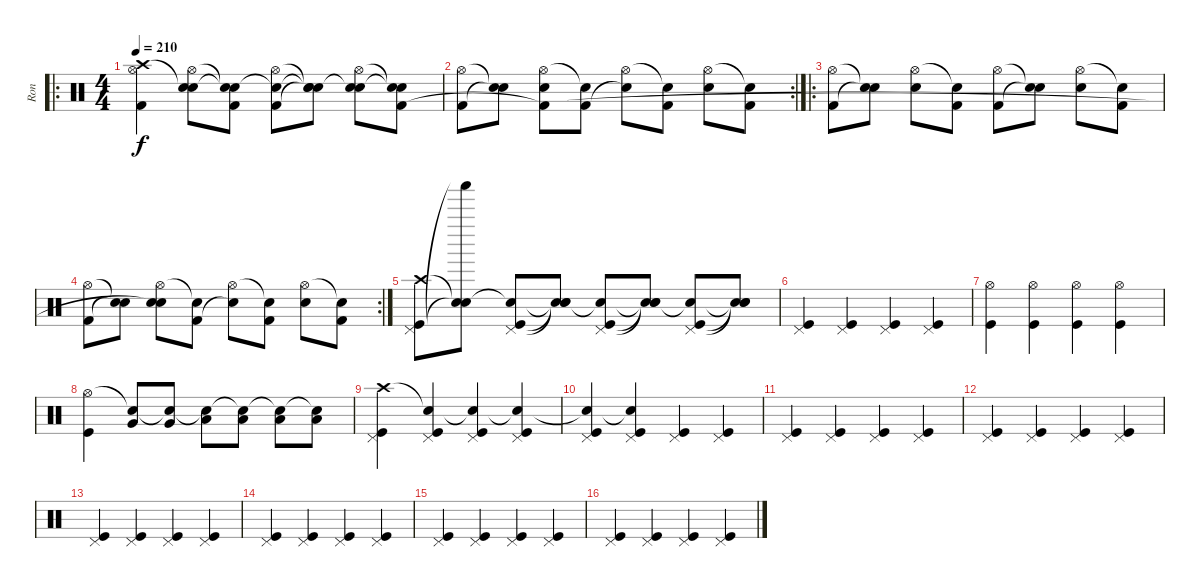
\track ("Ron" "Ron") {instrument percussion}
\staff {score}
\articulation defaults
\ro
\ts (4 4)
\tempo 210
\clef neutral
\ks c
("Crash high (hit)" "Hi-Hat (open)" "Kick (hit) 2").4{dy f} ("Snare (hit)"{t} "Hi-Hat (open)" "Electric Snare (hit)").8 ("Snare (hit)"{t} "Snare (hit)"{t} "Kick (hit) 2").8 ("Snare (hit)"{t} "Hi-Hat (open)" "Kick (hit) 2").8 ("Snare (hit)"{t} "Snare (hit)"{t} "Snare (hit)"{t}).8 ("Snare (hit)"{t} "Hi-Hat (open)" "Electric Snare (hit)").8 ("Snare (hit)"{t} "Snare (hit)"{t} "Kick (hit) 2").8 |
\rc 2
("Hi-Hat (open)" "Kick (hit) 2").8 ("Snare (hit)"{t} "Snare (hit)"{t}).8 ("Hi-Hat (open)" "Electric Snare (hit)" "Kick (hit) 2"{t}).8 ("Snare (hit)"{t} "Kick (hit) 2").8 ("Hi-Hat (open)" "Snare (hit)"{t}).8 ("Snare (hit)"{t} "Kick (hit) 2").8 ("Hi-Hat (open)" "Electric Snare (hit)").8 ("Snare (hit)"{t} "Kick (hit) 2").8 |
\ro
("Hi-Hat (open)" "Kick (hit) 2").8 ("Snare (hit)"{t} "Snare (hit)"{t}).8 ("Hi-Hat (open)" "Electric Snare (hit)").8 ("Snare (hit)"{t} "Kick (hit) 2").8 ("Hi-Hat (open)" "Kick (hit) 2").8 ("Snare (hit)"{t} "Snare (hit)"{t}).8 ("Hi-Hat (open)" "Electric Snare (hit)").8 ("Snare (hit)"{t} "Kick (hit) 2").8 |
\rc 2
("Hi-Hat (open)" "Kick (hit) 2").8 ("Snare (hit)"{t} "Snare (hit)"{t}).8 ("Hi-Hat (open)" "Electric Snare (hit)" "Snare (hit)"{t}).8 ("Snare (hit)"{t} "Kick (hit) 2").8 ("Hi-Hat (open)" "Snare (hit)"{t}).8 ("Snare (hit)"{t} "Kick (hit) 2").8 ("Hi-Hat (open)" "Electric Snare (hit)").8 ("Snare (hit)"{t} "Kick (hit) 2").8 |
("Crash high (hit)" "Pedal Hi-Hat (hit)" "Kick (hit)").8 ("Snare (hit)"{t} "Shaker (hit)"{t} "Snare (hit)"{t}).8 ("Snare (hit)"{t} "Pedal Hi-Hat (hit)" "Kick (hit)").8 ("Snare (hit)"{t} "Snare (hit)"{t} "Snare (hit)"{t}).8 ("Snare (hit)"{t} "Pedal Hi-Hat (hit)" "Kick (hit)").8 ("Snare (hit)"{t} "Snare (hit)"{t} "Snare (hit)"{t}).8 ("Snare (hit)"{t} "Pedal Hi-Hat (hit)" "Kick (hit)").8 ("Snare (hit)"{t} "Snare (hit)"{t} "Snare (hit)"{t}).8 |
("Pedal Hi-Hat (hit)" "Kick (hit)").4 ("Pedal Hi-Hat (hit)" "Kick (hit)").4 ("Pedal Hi-Hat (hit)" "Kick (hit)").4 ("Pedal Hi-Hat (hit)" "Kick (hit)").4 |
("Hi-Hat (open)" "Kick (hit)").4 ("Hi-Hat (open)" "Kick (hit)").4 ("Hi-Hat (open)" "Kick (hit)").4 ("Hi-Hat (open)" "Kick (hit)").4 |
("Hi-Hat (open)" "Kick (hit)").4 ("Snare (hit)"{t} "Very Low Tom (hit)").8 ("Snare (hit)"{t} "Very Low Tom (hit)").8 ("Snare (hit)"{t} "Low Floor Tom (hit)").8 ("Snare (hit)"{t} "Low Floor Tom (hit)").8 ("Snare (hit)"{t} "Low Floor Tom (hit)").8 ("Snare (hit)"{t} "Low Floor Tom (hit)").8 |
("Crash high (hit)" "Pedal Hi-Hat (hit)" "Kick (hit)").4 ("Snare (hit)"{t} "Pedal Hi-Hat (hit)" "Kick (hit)").4 ("Snare (hit)"{t} "Pedal Hi-Hat (hit)" "Kick (hit)").4 ("Snare (hit)"{t} "Pedal Hi-Hat (hit)" "Kick (hit)").4 |
("Snare (hit)"{t} "Pedal Hi-Hat (hit)" "Kick (hit)").4 ("Snare (hit)"{t} "Pedal Hi-Hat (hit)" "Kick (hit)").4 ("Pedal Hi-Hat (hit)" "Kick (hit)").4 ("Pedal Hi-Hat (hit)" "Kick (hit)").4 |
("Pedal Hi-Hat (hit)" "Kick (hit)").4 ("Pedal Hi-Hat (hit)" "Kick (hit)").4 ("Pedal Hi-Hat (hit)" "Kick (hit)").4 ("Pedal Hi-Hat (hit)" "Kick (hit)").4 |
("Pedal Hi-Hat (hit)" "Kick (hit)").4 ("Pedal Hi-Hat (hit)" "Kick (hit)").4 ("Pedal Hi-Hat (hit)" "Kick (hit)").4 ("Pedal Hi-Hat (hit)" "Kick (hit)").4 |
("Pedal Hi-Hat (hit)" "Kick (hit)").4 ("Pedal Hi-Hat (hit)" "Kick (hit)").4 ("Pedal Hi-Hat (hit)" "Kick (hit)").4 ("Pedal Hi-Hat (hit)" "Kick (hit)").4 |
("Pedal Hi-Hat (hit)" "Kick (hit)").4 ("Pedal Hi-Hat (hit)" "Kick (hit)").4 ("Pedal Hi-Hat (hit)" "Kick (hit)").4 ("Pedal Hi-Hat (hit)" "Kick (hit)").4 |
("Pedal Hi-Hat (hit)" "Kick (hit)").4 ("Pedal Hi-Hat (hit)" "Kick (hit)").4 ("Pedal Hi-Hat (hit)" "Kick (hit)").4 ("Pedal Hi-Hat (hit)" "Kick (hit)").4 |
("Pedal Hi-Hat (hit)" "Kick (hit)").4 ("Pedal Hi-Hat (hit)" "Kick (hit)").4 ("Pedal Hi-Hat (hit)" "Kick (hit)").4 ("Pedal Hi-Hat (hit)" "Kick (hit)").4
